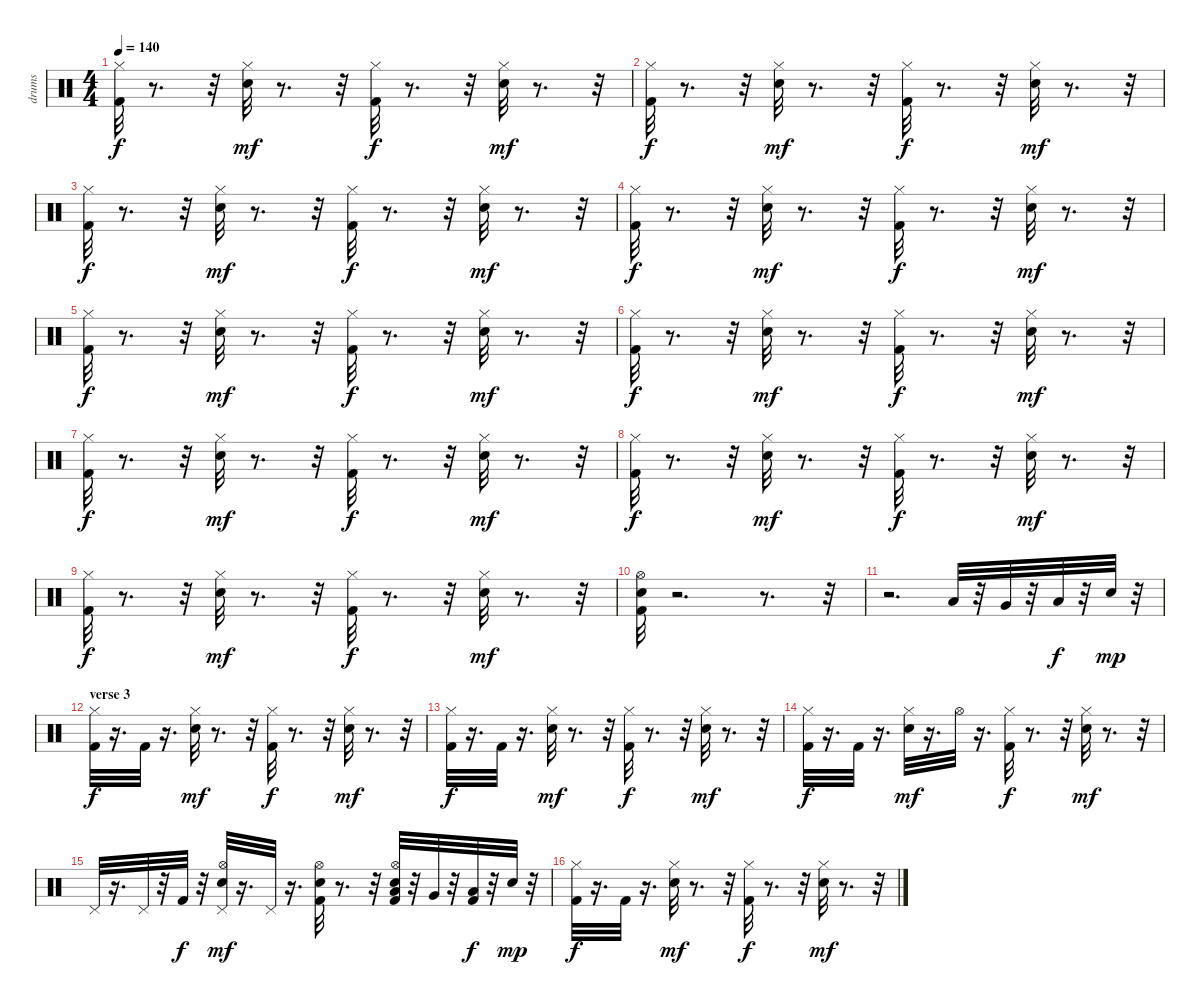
\track ("drums" "drums") {instrument percussion}
\staff {score}
\articulation defaults
\ts (4 4)
\tempo 140
\clef neutral
\ks c
("Kick (hit) 2" "Hi-Hat (closed)").32{dy f} r.8{d} r.32 ("Snare (hit) 2" "Hi-Hat (closed)").32{dy mf} r.8{d} r.32 ("Kick (hit) 2" "Hi-Hat (closed)").32{dy f} r.8{d} r.32 ("Snare (hit) 2" "Hi-Hat (closed)").32{dy mf} r.8{d} r.32 |
("Kick (hit) 2" "Hi-Hat (closed)").32{dy f} r.8{d} r.32 ("Snare (hit) 2" "Hi-Hat (closed)").32{dy mf} r.8{d} r.32 ("Kick (hit) 2" "Hi-Hat (closed)").32{dy f} r.8{d} r.32 ("Snare (hit) 2" "Hi-Hat (closed)").32{dy mf} r.8{d} r.32 |
("Kick (hit) 2" "Hi-Hat (closed)").32{dy f} r.8{d} r.32 ("Snare (hit) 2" "Hi-Hat (closed)").32{dy mf} r.8{d} r.32 ("Kick (hit) 2" "Hi-Hat (closed)").32{dy f} r.8{d} r.32 ("Snare (hit) 2" "Hi-Hat (closed)").32{dy mf} r.8{d} r.32 |
("Kick (hit) 2" "Hi-Hat (closed)").32{dy f} r.8{d} r.32 ("Snare (hit) 2" "Hi-Hat (closed)").32{dy mf} r.8{d} r.32 ("Kick (hit) 2" "Hi-Hat (closed)").32{dy f} r.8{d} r.32 ("Snare (hit) 2" "Hi-Hat (closed)").32{dy mf} r.8{d} r.32 |
("Kick (hit) 2" "Hi-Hat (closed)").32{dy f} r.8{d} r.32 ("Snare (hit) 2" "Hi-Hat (closed)").32{dy mf} r.8{d} r.32 ("Kick (hit) 2" "Hi-Hat (closed)").32{dy f} r.8{d} r.32 ("Snare (hit) 2" "Hi-Hat (closed)").32{dy mf} r.8{d} r.32 |
("Kick (hit) 2" "Hi-Hat (closed)").32{dy f} r.8{d} r.32 ("Snare (hit) 2" "Hi-Hat (closed)").32{dy mf} r.8{d} r.32 ("Kick (hit) 2" "Hi-Hat (closed)").32{dy f} r.8{d} r.32 ("Snare (hit) 2" "Hi-Hat (closed)").32{dy mf} r.8{d} r.32 |
("Kick (hit) 2" "Hi-Hat (closed)").32{dy f} r.8{d} r.32 ("Snare (hit) 2" "Hi-Hat (closed)").32{dy mf} r.8{d} r.32 ("Kick (hit) 2" "Hi-Hat (closed)").32{dy f} r.8{d} r.32 ("Snare (hit) 2" "Hi-Hat (closed)").32{dy mf} r.8{d} r.32 |
("Kick (hit) 2" "Hi-Hat (closed)").32{dy f} r.8{d} r.32 ("Snare (hit) 2" "Hi-Hat (closed)").32{dy mf} r.8{d} r.32 ("Kick (hit) 2" "Hi-Hat (closed)").32{dy f} r.8{d} r.32 ("Snare (hit) 2" "Hi-Hat (closed)").32{dy mf} r.8{d} r.32 |
("Kick (hit) 2" "Hi-Hat (closed)").32{dy f} r.8{d} r.32 ("Snare (hit) 2" "Hi-Hat (closed)").32{dy mf} r.8{d} r.32 ("Kick (hit) 2" "Hi-Hat (closed)").32{dy f} r.8{d} r.32 ("Snare (hit) 2" "Hi-Hat (closed)").32{dy mf} r.8{d} r.32 |
("Hi-Hat (open)" "Kick (hit) 2" "Snare (hit) 2").32 r.2{d} r.8{d} r.32 |
r.2{d} "Low Tom (hit)".32 r.32 "Very Low Tom (hit)".32 r.32 "Low Floor Tom (hit)".32{dy f} r.32 "Electric Snare (hit)".32{dy mp} r.32 |
\section ("" "verse 3")
("Kick (hit) 2" "Hi-Hat (closed)").32{dy f} r.16{d} "Kick (hit) 2".32 r.16{d} ("Snare (hit) 2" "Hi-Hat (closed)").32{dy mf} r.8{d} r.32 ("Kick (hit) 2" "Hi-Hat (closed)").32{dy f} r.8{d} r.32 ("Snare (hit) 2" "Hi-Hat (closed)").32{dy mf} r.8{d} r.32 |
("Kick (hit) 2" "Hi-Hat (closed)").32{dy f} r.16{d} "Kick (hit) 2".32 r.16{d} ("Snare (hit) 2" "Hi-Hat (closed)").32{dy mf} r.8{d} r.32 ("Kick (hit) 2" "Hi-Hat (closed)").32{dy f} r.8{d} r.32 ("Snare (hit) 2" "Hi-Hat (closed)").32{dy mf} r.8{d} r.32 |
("Kick (hit) 2" "Hi-Hat (closed)").32{dy f} r.16{d} "Kick (hit) 2".32 r.16{d} ("Snare (hit) 2" "Hi-Hat (closed)").32{dy mf} r.16{d} "Hi-Hat (open)".32 r.16{d} ("Kick (hit) 2" "Hi-Hat (closed)").32{dy f} r.8{d} r.32 ("Snare (hit) 2" "Hi-Hat (closed)").32{dy mf} r.8{d} r.32 |
"Pedal Hi-Hat (hit)".32 r.16{d} "Pedal Hi-Hat (hit)".32 r.32 "Kick (hit) 2".32{dy f} r.32 ("Snare (hit) 2" "Pedal Hi-Hat (hit)" "Hi-Hat (open)").32{dy mf} r.16{d} "Pedal Hi-Hat (hit)".32 r.16{d} ("Kick (hit) 2" "Snare (hit) 2" "Hi-Hat (open)").32 r.8{d} r.32 ("Kick (hit) 2" "Snare (hit) 2" "Low Tom (hit)" "Hi-Hat (open)").32 r.32 "Very Low Tom (hit)".32 r.32 ("Kick (hit) 2" "Low Floor Tom (hit)").32{dy f} r.32 "Electric Snare (hit)".32{dy mp} r.32 |
("Kick (hit) 2" "Hi-Hat (closed)").32{dy f} r.16{d} "Kick (hit) 2".32 r.16{d} ("Snare (hit) 2" "Hi-Hat (closed)").32{dy mf} r.8{d} r.32 ("Kick (hit) 2" "Hi-Hat (closed)").32{dy f} r.8{d} r.32 ("Snare (hit) 2" "Hi-Hat (closed)").32{dy mf} r.8{d} r.32
